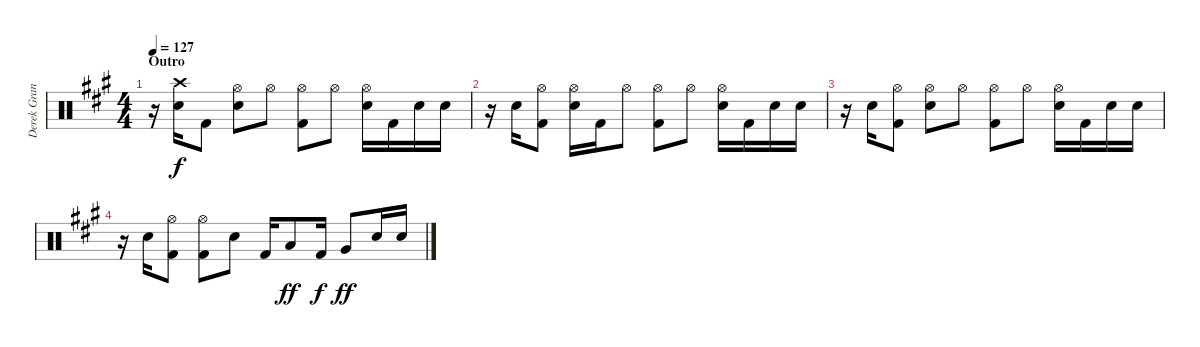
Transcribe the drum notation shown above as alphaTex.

\track ("Derek Grant - Drums" "Derek Gran") {instrument percussion}
\staff {score}
\articulation defaults
\ts (4 4)
\section ("" "Outro")
\tempo 127
\clef neutral
\ks a
r.16{dy f} ("Crash high (hit)" "Snare (hit) 2").16 "Kick (hit) 2".8 ("Snare (hit) 2" "Hi-Hat (open)").8 "Hi-Hat (open)".8 ("Hi-Hat (open)" "Kick (hit) 2").8 "Hi-Hat (open)".8 ("Hi-Hat (open)" "Snare (hit) 2").16 "Kick (hit) 2".16 "Snare (hit) 2".16 "Snare (hit) 2".16 |
r.16 "Snare (hit) 2".16 ("Hi-Hat (open)" "Kick (hit) 2").8 ("Snare (hit) 2" "Hi-Hat (open)").16 "Kick (hit) 2".16 "Hi-Hat (open)".8 ("Hi-Hat (open)" "Kick (hit) 2").8 "Hi-Hat (open)".8 ("Hi-Hat (open)" "Snare (hit) 2").16 "Kick (hit) 2".16 "Snare (hit) 2".16 "Snare (hit) 2".16 |
r.16 "Snare (hit) 2".16 ("Hi-Hat (open)" "Kick (hit) 2").8 ("Snare (hit) 2" "Hi-Hat (open)").8 "Hi-Hat (open)".8 ("Hi-Hat (open)" "Kick (hit) 2").8 "Hi-Hat (open)".8 ("Hi-Hat (open)" "Snare (hit) 2").16 "Kick (hit) 2".16 "Snare (hit) 2".16 "Snare (hit) 2".16 |
r.16 "Snare (hit) 2".16 ("Hi-Hat (open)" "Kick (hit) 2").8 ("Hi-Hat (open)" "Kick (hit) 2").8 "Snare (hit) 2".8 "Kick (hit) 2".16 "Low Tom (hit)".8{dy ff} "Kick (hit) 2".16{dy f} "Very Low Tom (hit)".8{dy ff} "Snare (hit) 2".16 "Snare (hit) 2".16
